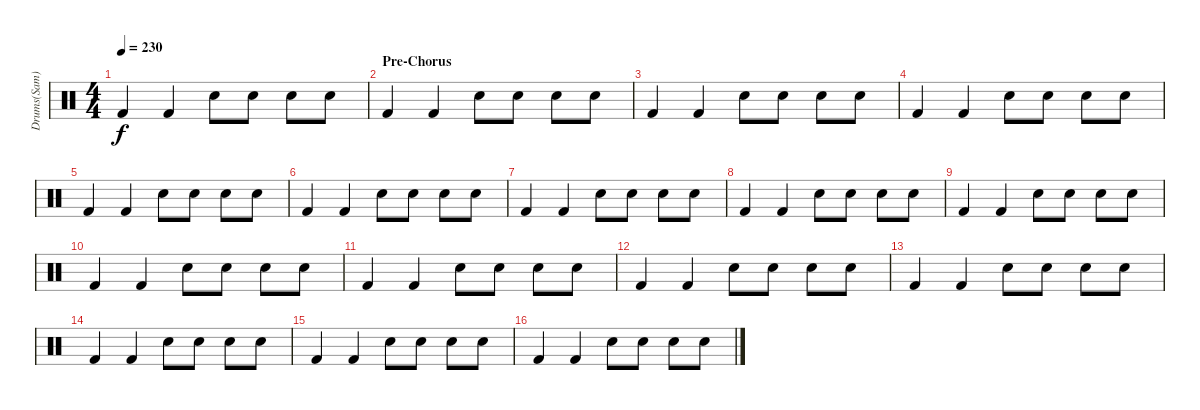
\track ("Drums(Sam)" "Drums(Sam)") {instrument percussion}
\staff {score}
\articulation defaults
\ts (4 4)
\tempo 230
\clef neutral
\ks c "Kick (hit) 2".4{dy f} "Kick (hit) 2".4 "Snare (hit) 2".8 "Snare (hit) 2".8 "Snare (hit) 2".8 "Snare (hit) 2".8
|
\section ("" "Pre-Chorus")
"Kick (hit) 2".4 "Kick (hit) 2".4 "Snare (hit) 2".8 "Snare (hit) 2".8 "Snare (hit) 2".8 "Snare (hit) 2".8 |
"Kick (hit) 2".4 "Kick (hit) 2".4 "Snare (hit) 2".8 "Snare (hit) 2".8 "Snare (hit) 2".8 "Snare (hit) 2".8 |
"Kick (hit) 2".4 "Kick (hit) 2".4 "Snare (hit) 2".8 "Snare (hit) 2".8 "Snare (hit) 2".8 "Snare (hit) 2".8 |
"Kick (hit) 2".4 "Kick (hit) 2".4 "Snare (hit) 2".8 "Snare (hit) 2".8 "Snare (hit) 2".8 "Snare (hit) 2".8 |
"Kick (hit) 2".4 "Kick (hit) 2".4 "Snare (hit) 2".8 "Snare (hit) 2".8 "Snare (hit) 2".8 "Snare (hit) 2".8 |
"Kick (hit) 2".4 "Kick (hit) 2".4 "Snare (hit) 2".8 "Snare (hit) 2".8 "Snare (hit) 2".8 "Snare (hit) 2".8 |
"Kick (hit) 2".4 "Kick (hit) 2".4 "Snare (hit) 2".8 "Snare (hit) 2".8 "Snare (hit) 2".8 "Snare (hit) 2".8 |
"Kick (hit) 2".4 "Kick (hit) 2".4 "Snare (hit) 2".8 "Snare (hit) 2".8 "Snare (hit) 2".8 "Snare (hit) 2".8 |
"Kick (hit) 2".4 "Kick (hit) 2".4 "Snare (hit) 2".8 "Snare (hit) 2".8 "Snare (hit) 2".8 "Snare (hit) 2".8 |
"Kick (hit) 2".4 "Kick (hit) 2".4 "Snare (hit) 2".8 "Snare (hit) 2".8 "Snare (hit) 2".8 "Snare (hit) 2".8 |
"Kick (hit) 2".4 "Kick (hit) 2".4 "Snare (hit) 2".8 "Snare (hit) 2".8 "Snare (hit) 2".8 "Snare (hit) 2".8 |
"Kick (hit) 2".4 "Kick (hit) 2".4 "Snare (hit) 2".8 "Snare (hit) 2".8 "Snare (hit) 2".8 "Snare (hit) 2".8 |
"Kick (hit) 2".4 "Kick (hit) 2".4 "Snare (hit) 2".8 "Snare (hit) 2".8 "Snare (hit) 2".8 "Snare (hit) 2".8 |
"Kick (hit) 2".4 "Kick (hit) 2".4 "Snare (hit) 2".8 "Snare (hit) 2".8 "Snare (hit) 2".8 "Snare (hit) 2".8 |
"Kick (hit) 2".4 "Kick (hit) 2".4 "Snare (hit) 2".8 "Snare (hit) 2".8 "Snare (hit) 2".8 "Snare (hit) 2".8
